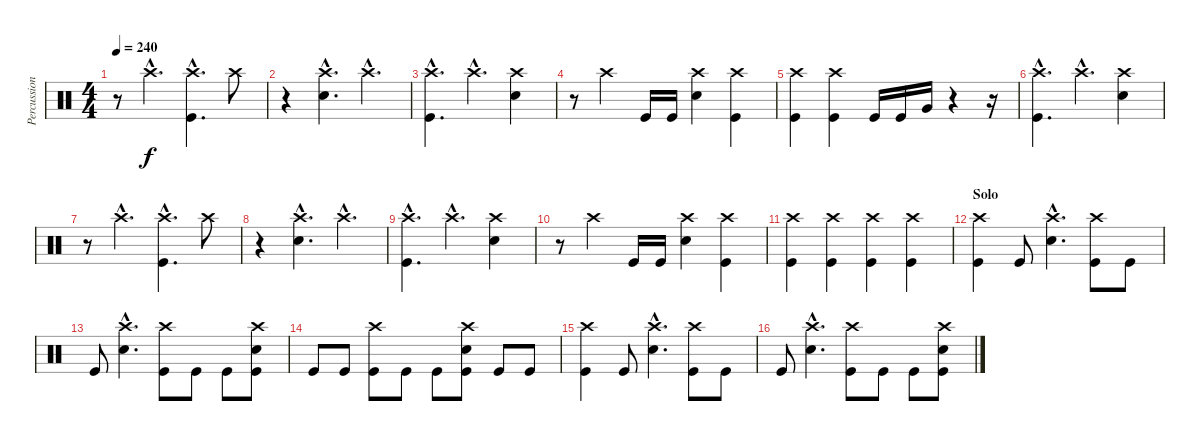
\track ("Percussion" "Percussion") {instrument percussion}
\staff {score}
\articulation defaults
\ts (4 4)
\tempo 240
\clef neutral
\ks c
r.8{dy f} "Crash high (hit)"{hac}.4{d} ("Crash high (hit)"{hac} "Kick (hit)"{hac}).4{d} "Crash high (hit)".8 |
r.4 ("Crash high (hit)"{hac} "Electric Snare (hit)"{hac}).4{d} "Crash high (hit)"{hac}.4{d} |
("Crash high (hit)"{hac} "Kick (hit)"{hac}).4{d} "Crash high (hit)"{hac}.4{d} ("Crash high (hit)" "Electric Snare (hit)").4 |
r.8 "Crash high (hit)".4 "Kick (hit)".16 "Kick (hit)".16 ("Crash high (hit)" "Electric Snare (hit)").4 ("Crash high (hit)" "Kick (hit)").4 |
("Crash high (hit)" "Kick (hit)").4 ("Crash high (hit)" "Kick (hit)").4 "Kick (hit)".16 "Kick (hit)".16 "Very Low Tom (hit)".16 r.4 r.16 |
("Crash high (hit)"{hac} "Kick (hit)"{hac}).4{d} "Crash high (hit)"{hac}.4{d} ("Crash high (hit)" "Electric Snare (hit)").4 |
r.8 "Crash high (hit)"{hac}.4{d} ("Crash high (hit)"{hac} "Kick (hit)"{hac}).4{d} "Crash high (hit)".8 |
r.4 ("Crash high (hit)"{hac} "Electric Snare (hit)"{hac}).4{d} "Crash high (hit)"{hac}.4{d} |
("Crash high (hit)"{hac} "Kick (hit)"{hac}).4{d} "Crash high (hit)"{hac}.4{d} ("Crash high (hit)" "Electric Snare (hit)").4 |
r.8 "Crash high (hit)".4 "Kick (hit)".16 "Kick (hit)".16 ("Crash high (hit)" "Electric Snare (hit)").4 ("Crash high (hit)" "Kick (hit)").4 |
("Crash high (hit)" "Kick (hit)").4 ("Crash high (hit)" "Kick (hit)").4 ("Crash high (hit)" "Kick (hit)").4 ("Crash high (hit)" "Kick (hit)").4 |
\section ("" "Solo")
("Crash high (hit)" "Kick (hit)").4 "Kick (hit)".8 ("Crash high (hit)"{hac} "Electric Snare (hit)"{hac}).4{d} ("Crash high (hit)" "Kick (hit)").8 "Kick (hit)".8 |
"Kick (hit)".8 ("Crash high (hit)"{hac} "Electric Snare (hit)"{hac}).4{d} ("Crash high (hit)" "Kick (hit)").8 "Kick (hit)".8 "Kick (hit)".8 ("Crash high (hit)" "Electric Snare (hit)" "Kick (hit)").8 |
"Kick (hit)".8 "Kick (hit)".8 ("Crash high (hit)" "Kick (hit)").8 "Kick (hit)".8 "Kick (hit)".8 ("Crash high (hit)" "Electric Snare (hit)" "Kick (hit)").8 "Kick (hit)".8 "Kick (hit)".8 |
("Crash high (hit)" "Kick (hit)").4 "Kick (hit)".8 ("Crash high (hit)"{hac} "Electric Snare (hit)"{hac}).4{d} ("Crash high (hit)" "Kick (hit)").8 "Kick (hit)".8 |
"Kick (hit)".8 ("Crash high (hit)"{hac} "Electric Snare (hit)"{hac}).4{d} ("Crash high (hit)" "Kick (hit)").8 "Kick (hit)".8 "Kick (hit)".8 ("Crash high (hit)" "Electric Snare (hit)" "Kick (hit)").8
